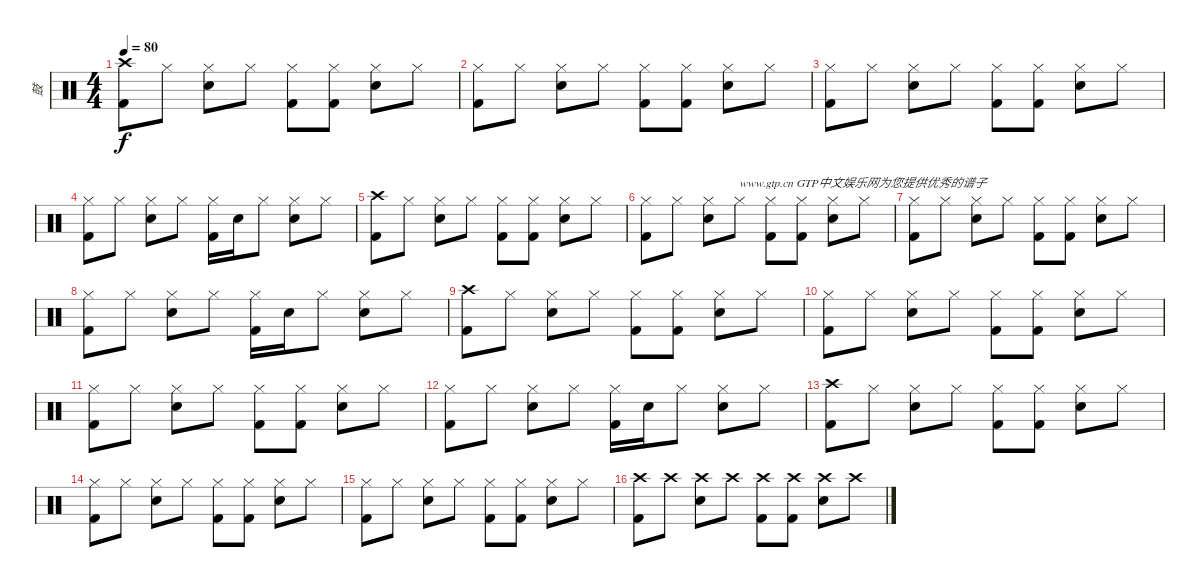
\track ("鼓" "鼓") {instrument percussion}
\staff {score}
\articulation defaults
\ts (4 4)
\tempo 80
\clef neutral
\ks c
("Crash high (hit)" "Kick (hit) 2").8{dy f} "Hi-Hat (closed)".8 ("Hi-Hat (closed)" "Electric Snare (hit)").8 "Hi-Hat (closed)".8 ("Hi-Hat (closed)" "Kick (hit) 2").8 ("Hi-Hat (closed)" "Kick (hit) 2").8 ("Hi-Hat (closed)" "Electric Snare (hit)").8 "Hi-Hat (closed)".8 |
("Hi-Hat (closed)" "Kick (hit) 2").8 "Hi-Hat (closed)".8 ("Hi-Hat (closed)" "Electric Snare (hit)").8 "Hi-Hat (closed)".8 ("Hi-Hat (closed)" "Kick (hit) 2").8 ("Hi-Hat (closed)" "Kick (hit) 2").8 ("Hi-Hat (closed)" "Electric Snare (hit)").8 "Hi-Hat (closed)".8 |
("Hi-Hat (closed)" "Kick (hit) 2").8 "Hi-Hat (closed)".8 ("Hi-Hat (closed)" "Electric Snare (hit)").8 "Hi-Hat (closed)".8 ("Hi-Hat (closed)" "Kick (hit) 2").8 ("Hi-Hat (closed)" "Kick (hit) 2").8 ("Hi-Hat (closed)" "Electric Snare (hit)").8 "Hi-Hat (closed)".8 |
("Hi-Hat (closed)" "Kick (hit) 2").8 "Hi-Hat (closed)".8 ("Hi-Hat (closed)" "Electric Snare (hit)").8 "Hi-Hat (closed)".8 ("Hi-Hat (closed)" "Kick (hit) 2").16 "Electric Snare (hit)".16 "Hi-Hat (closed)".8 ("Hi-Hat (closed)" "Electric Snare (hit)").8 "Hi-Hat (closed)".8 |
("Crash high (hit)" "Kick (hit) 2").8 "Hi-Hat (closed)".8 ("Hi-Hat (closed)" "Electric Snare (hit)").8 "Hi-Hat (closed)".8 ("Hi-Hat (closed)" "Kick (hit) 2").8 ("Hi-Hat (closed)" "Kick (hit) 2").8 ("Hi-Hat (closed)" "Electric Snare (hit)").8 "Hi-Hat (closed)".8 |
("Hi-Hat (closed)" "Kick (hit) 2").8 "Hi-Hat (closed)".8 ("Hi-Hat (closed)" "Electric Snare (hit)").8 "Hi-Hat (closed)".8{txt "www.gtp.cn GTP中文娱乐网为您提供优秀的谱子"} ("Hi-Hat (closed)" "Kick (hit) 2").8 ("Hi-Hat (closed)" "Kick (hit) 2").8 ("Hi-Hat (closed)" "Electric Snare (hit)").8 "Hi-Hat (closed)".8 |
("Hi-Hat (closed)" "Kick (hit) 2").8 "Hi-Hat (closed)".8 ("Hi-Hat (closed)" "Electric Snare (hit)").8 "Hi-Hat (closed)".8 ("Hi-Hat (closed)" "Kick (hit) 2").8 ("Hi-Hat (closed)" "Kick (hit) 2").8 ("Hi-Hat (closed)" "Electric Snare (hit)").8 "Hi-Hat (closed)".8 |
("Hi-Hat (closed)" "Kick (hit) 2").8 "Hi-Hat (closed)".8 ("Hi-Hat (closed)" "Electric Snare (hit)").8 "Hi-Hat (closed)".8 ("Hi-Hat (closed)" "Kick (hit) 2").16 "Electric Snare (hit)".16 "Hi-Hat (closed)".8 ("Hi-Hat (closed)" "Electric Snare (hit)").8 "Hi-Hat (closed)".8 |
("Crash high (hit)" "Kick (hit) 2").8 "Hi-Hat (closed)".8 ("Hi-Hat (closed)" "Electric Snare (hit)").8 "Hi-Hat (closed)".8 ("Hi-Hat (closed)" "Kick (hit) 2").8 ("Hi-Hat (closed)" "Kick (hit) 2").8 ("Hi-Hat (closed)" "Electric Snare (hit)").8 "Hi-Hat (closed)".8 |
("Hi-Hat (closed)" "Kick (hit) 2").8 "Hi-Hat (closed)".8 ("Hi-Hat (closed)" "Electric Snare (hit)").8 "Hi-Hat (closed)".8 ("Hi-Hat (closed)" "Kick (hit) 2").8 ("Hi-Hat (closed)" "Kick (hit) 2").8 ("Hi-Hat (closed)" "Electric Snare (hit)").8 "Hi-Hat (closed)".8 |
("Hi-Hat (closed)" "Kick (hit) 2").8 "Hi-Hat (closed)".8 ("Hi-Hat (closed)" "Electric Snare (hit)").8 "Hi-Hat (closed)".8 ("Hi-Hat (closed)" "Kick (hit) 2").8 ("Hi-Hat (closed)" "Kick (hit) 2").8 ("Hi-Hat (closed)" "Electric Snare (hit)").8 "Hi-Hat (closed)".8 |
("Hi-Hat (closed)" "Kick (hit) 2").8 "Hi-Hat (closed)".8 ("Hi-Hat (closed)" "Electric Snare (hit)").8 "Hi-Hat (closed)".8 ("Hi-Hat (closed)" "Kick (hit) 2").16 "Electric Snare (hit)".16 "Hi-Hat (closed)".8 ("Hi-Hat (closed)" "Electric Snare (hit)").8 "Hi-Hat (closed)".8 |
("Crash high (hit)" "Kick (hit) 2").8 "Hi-Hat (closed)".8 ("Hi-Hat (closed)" "Electric Snare (hit)").8 "Hi-Hat (closed)".8 ("Hi-Hat (closed)" "Kick (hit) 2").8 ("Hi-Hat (closed)" "Kick (hit) 2").8 ("Hi-Hat (closed)" "Electric Snare (hit)").8 "Hi-Hat (closed)".8 |
("Hi-Hat (closed)" "Kick (hit) 2").8 "Hi-Hat (closed)".8 ("Hi-Hat (closed)" "Electric Snare (hit)").8 "Hi-Hat (closed)".8 ("Hi-Hat (closed)" "Kick (hit) 2").8 ("Hi-Hat (closed)" "Kick (hit) 2").8 ("Hi-Hat (closed)" "Electric Snare (hit)").8 "Hi-Hat (closed)".8 |
("Hi-Hat (closed)" "Kick (hit) 2").8 "Hi-Hat (closed)".8 ("Hi-Hat (closed)" "Electric Snare (hit)").8 "Hi-Hat (closed)".8 ("Hi-Hat (closed)" "Kick (hit) 2").8 ("Hi-Hat (closed)" "Kick (hit) 2").8 ("Hi-Hat (closed)" "Electric Snare (hit)").8 "Hi-Hat (closed)".8 |
("Crash high (hit)" "Kick (hit) 2").8 "Crash high (hit)".8 ("Crash high (hit)" "Electric Snare (hit)").8 "Crash high (hit)".8 ("Crash high (hit)" "Kick (hit) 2").8 ("Crash high (hit)" "Kick (hit) 2").8 ("Crash high (hit)" "Electric Snare (hit)").8 "Crash high (hit)".8
